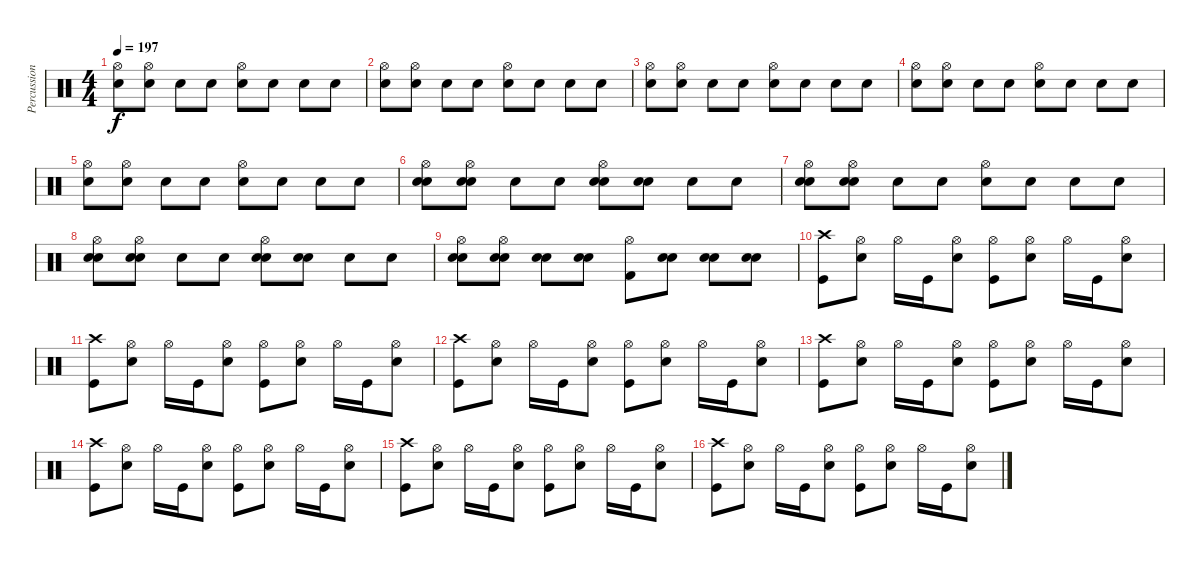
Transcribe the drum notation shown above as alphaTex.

\track ("Percussion" "Percussion") {instrument percussion}
\staff {score}
\articulation defaults
\ts (4 4)
\tempo 197
\clef neutral
\ks c
("Hi-Hat (open)" "Snare (hit)"{x}).8{dy f} ("Hi-Hat (open)"{x} "Snare (hit)"{x}).8 "Snare (hit)"{x}.8 "Snare (hit)"{x}.8 ("Hi-Hat (open)" "Snare (hit)"{x}).8 "Snare (hit)"{x}.8 "Snare (hit)"{x}.8 "Snare (hit)"{x}.8 |
("Hi-Hat (open)" "Snare (hit)"{x}).8 ("Hi-Hat (open)"{x} "Snare (hit)"{x}).8 "Snare (hit)"{x}.8 "Snare (hit)"{x}.8 ("Hi-Hat (open)" "Snare (hit)"{x}).8 "Snare (hit)"{x}.8 "Snare (hit)"{x}.8 "Snare (hit)"{x}.8 |
("Hi-Hat (open)" "Snare (hit)"{x}).8 ("Hi-Hat (open)"{x} "Snare (hit)"{x}).8 "Snare (hit)"{x}.8 "Snare (hit)"{x}.8 ("Hi-Hat (open)" "Snare (hit)"{x}).8 "Snare (hit)"{x}.8 "Snare (hit)"{x}.8 "Snare (hit)"{x}.8 |
("Hi-Hat (open)" "Snare (hit)"{x}).8 ("Hi-Hat (open)"{x} "Snare (hit)"{x}).8 "Snare (hit)"{x}.8 "Snare (hit)"{x}.8 ("Hi-Hat (open)" "Snare (hit)"{x}).8 "Snare (hit)"{x}.8 "Snare (hit)"{x}.8 "Snare (hit)"{x}.8 |
("Hi-Hat (open)" "Snare (hit)"{x}).8 ("Hi-Hat (open)"{x} "Snare (hit)"{x}).8 "Snare (hit)"{x}.8 "Snare (hit)"{x}.8 ("Hi-Hat (open)" "Snare (hit)"{x}).8 "Snare (hit)"{x}.8 "Snare (hit)"{x}.8 "Snare (hit)"{x}.8 |
("Hi-Hat (open)" "Snare (hit) 2" "Snare (hit)"{x}).8 ("Hi-Hat (open)"{x} "Snare (hit) 2" "Snare (hit)"{x}).8 "Snare (hit)"{x}.8 "Snare (hit)"{x}.8 ("Hi-Hat (open)" "Snare (hit) 2" "Snare (hit)"{x}).8 ("Snare (hit) 2" "Snare (hit)"{x}).8 "Snare (hit)"{x}.8 "Snare (hit)"{x}.8 |
("Hi-Hat (open)" "Snare (hit) 2" "Snare (hit)"{x}).8 ("Hi-Hat (open)"{x} "Snare (hit) 2" "Snare (hit)"{x}).8 "Snare (hit)"{x}.8 "Snare (hit)"{x}.8 ("Hi-Hat (open)" "Snare (hit)"{x}).8 "Snare (hit)"{x}.8 "Snare (hit)"{x}.8 "Snare (hit)"{x}.8 |
("Hi-Hat (open)" "Snare (hit) 2" "Snare (hit)"{x}).8 ("Hi-Hat (open)"{x} "Snare (hit) 2" "Snare (hit)"{x}).8 "Snare (hit)"{x}.8 "Snare (hit)"{x}.8 ("Hi-Hat (open)" "Snare (hit) 2" "Snare (hit)"{x}).8 ("Snare (hit) 2" "Snare (hit)"{x}).8 "Snare (hit)"{x}.8 "Snare (hit)"{x}.8 |
("Hi-Hat (open)" "Snare (hit) 2" "Snare (hit)"{x}).8 ("Hi-Hat (open)"{x} "Snare (hit) 2" "Snare (hit)"{x}).8 ("Snare (hit) 2" "Snare (hit)"{x}).8 ("Snare (hit) 2" "Snare (hit)"{x}).8 ("Hi-Hat (open)" "Kick (hit) 2").8 ("Snare (hit) 2" "Snare (hit)"{x}).8 ("Snare (hit) 2" "Snare (hit)"{x}).8 ("Snare (hit) 2" "Snare (hit)"{x}).8 |
("Crash high (hit)" "Kick (hit)").8 ("Hi-Hat (open)" "Snare (hit) 2").8 "Hi-Hat (open)".16 "Kick (hit)".16 ("Hi-Hat (open)" "Snare (hit) 2").8 ("Hi-Hat (open)" "Kick (hit)").8 ("Hi-Hat (open)" "Snare (hit) 2").8 "Hi-Hat (open)".16 "Kick (hit)".16 ("Hi-Hat (open)" "Snare (hit) 2").8 |
("Crash high (hit)" "Kick (hit)").8 ("Hi-Hat (open)" "Snare (hit) 2").8 "Hi-Hat (open)".16 "Kick (hit)".16 ("Hi-Hat (open)" "Snare (hit) 2").8 ("Hi-Hat (open)" "Kick (hit)").8 ("Hi-Hat (open)" "Snare (hit) 2").8 "Hi-Hat (open)".16 "Kick (hit)".16 ("Hi-Hat (open)" "Snare (hit) 2").8 |
("Crash high (hit)" "Kick (hit)").8 ("Hi-Hat (open)" "Snare (hit) 2").8 "Hi-Hat (open)".16 "Kick (hit)".16 ("Hi-Hat (open)" "Snare (hit) 2").8 ("Hi-Hat (open)" "Kick (hit)").8 ("Hi-Hat (open)" "Snare (hit) 2").8 "Hi-Hat (open)".16 "Kick (hit)".16 ("Hi-Hat (open)" "Snare (hit) 2").8 |
("Crash high (hit)" "Kick (hit)").8 ("Hi-Hat (open)" "Snare (hit) 2").8 "Hi-Hat (open)".16 "Kick (hit)".16 ("Hi-Hat (open)" "Snare (hit) 2").8 ("Hi-Hat (open)" "Kick (hit)").8 ("Hi-Hat (open)" "Snare (hit) 2").8 "Hi-Hat (open)".16 "Kick (hit)".16 ("Hi-Hat (open)" "Snare (hit) 2").8 |
("Crash high (hit)" "Kick (hit)").8 ("Hi-Hat (open)" "Snare (hit) 2").8 "Hi-Hat (open)".16 "Kick (hit)".16 ("Hi-Hat (open)" "Snare (hit) 2").8 ("Hi-Hat (open)" "Kick (hit)").8 ("Hi-Hat (open)" "Snare (hit) 2").8 "Hi-Hat (open)".16 "Kick (hit)".16 ("Hi-Hat (open)" "Snare (hit) 2").8 |
("Crash high (hit)" "Kick (hit)").8 ("Hi-Hat (open)" "Snare (hit) 2").8 "Hi-Hat (open)".16 "Kick (hit)".16 ("Hi-Hat (open)" "Snare (hit) 2").8 ("Hi-Hat (open)" "Kick (hit)").8 ("Hi-Hat (open)" "Snare (hit) 2").8 "Hi-Hat (open)".16 "Kick (hit)".16 ("Hi-Hat (open)" "Snare (hit) 2").8 |
("Crash high (hit)" "Kick (hit)").8 ("Hi-Hat (open)" "Snare (hit) 2").8 "Hi-Hat (open)".16 "Kick (hit)".16 ("Hi-Hat (open)" "Snare (hit) 2").8 ("Hi-Hat (open)" "Kick (hit)").8 ("Hi-Hat (open)" "Snare (hit) 2").8 "Hi-Hat (open)".16 "Kick (hit)".16 ("Hi-Hat (open)" "Snare (hit) 2").8
